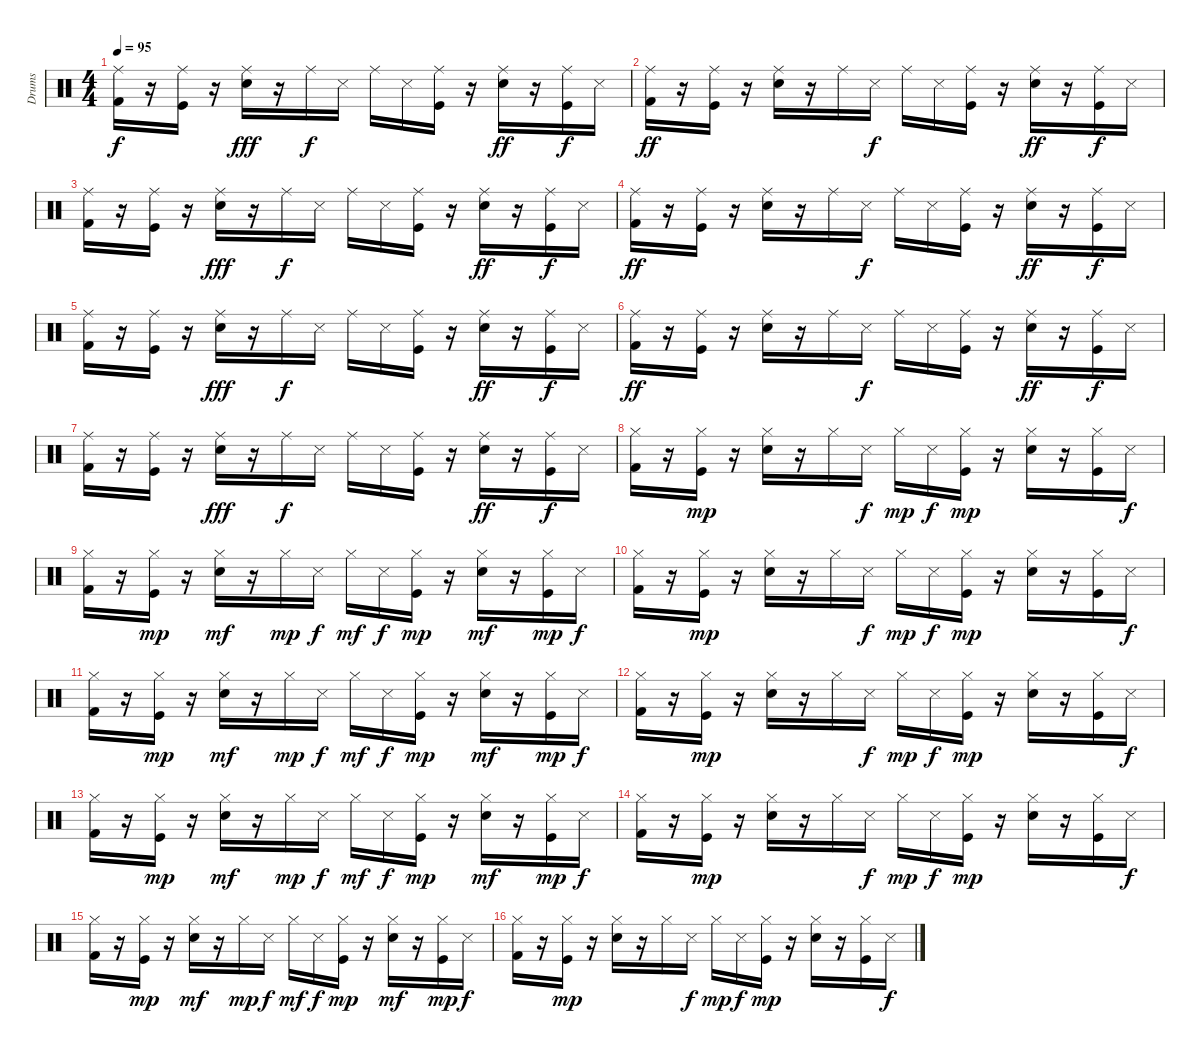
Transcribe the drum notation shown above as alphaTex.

\track ("Drums" "Drums") {instrument percussion}
\staff {score}
\articulation defaults
\ts (4 4)
\tempo 95
\clef neutral
\ks c
("Kick (hit) 2" "Ride (middle)").16{dy f} r.16 ("Kick (hit)" "Ride (middle)").16 r.16 ("Snare (hit) 2" "Ride (middle)").16{dy fff} r.16 "Ride (middle)".16{dy f} "Snare (side stick) 3".16 "Ride (middle)".16 "Snare (side stick) 3".16 ("Kick (hit)" "Ride (middle)").16 r.16 ("Snare (hit) 2" "Ride (middle)").16{dy ff} r.16 ("Kick (hit)" "Ride (middle)").16{dy f} "Snare (side stick) 3".16 |
("Kick (hit) 2" "Ride (middle)").16{dy ff} r.16 ("Kick (hit)" "Ride (middle)").16 r.16 ("Snare (hit) 2" "Ride (middle)").16 r.16 "Ride (middle)".16 "Snare (side stick) 3".16{dy f} "Ride (middle)".16 "Snare (side stick) 3".16 ("Kick (hit)" "Ride (middle)").16 r.16 ("Snare (hit) 2" "Ride (middle)").16{dy ff} r.16 ("Kick (hit)" "Ride (middle)").16{dy f} "Snare (side stick) 3".16 |
("Kick (hit) 2" "Ride (middle)").16 r.16 ("Kick (hit)" "Ride (middle)").16 r.16 ("Snare (hit) 2" "Ride (middle)").16{dy fff} r.16 "Ride (middle)".16{dy f} "Snare (side stick) 3".16 "Ride (middle)".16 "Snare (side stick) 3".16 ("Kick (hit)" "Ride (middle)").16 r.16 ("Snare (hit) 2" "Ride (middle)").16{dy ff} r.16 ("Kick (hit)" "Ride (middle)").16{dy f} "Snare (side stick) 3".16 |
("Kick (hit) 2" "Ride (middle)").16{dy ff} r.16 ("Kick (hit)" "Ride (middle)").16 r.16 ("Snare (hit) 2" "Ride (middle)").16 r.16 "Ride (middle)".16 "Snare (side stick) 3".16{dy f} "Ride (middle)".16 "Snare (side stick) 3".16 ("Kick (hit)" "Ride (middle)").16 r.16 ("Snare (hit) 2" "Ride (middle)").16{dy ff} r.16 ("Kick (hit)" "Ride (middle)").16{dy f} "Snare (side stick) 3".16 |
("Kick (hit) 2" "Ride (middle)").16 r.16 ("Kick (hit)" "Ride (middle)").16 r.16 ("Snare (hit) 2" "Ride (middle)").16{dy fff} r.16 "Ride (middle)".16{dy f} "Snare (side stick) 3".16 "Ride (middle)".16 "Snare (side stick) 3".16 ("Kick (hit)" "Ride (middle)").16 r.16 ("Snare (hit) 2" "Ride (middle)").16{dy ff} r.16 ("Kick (hit)" "Ride (middle)").16{dy f} "Snare (side stick) 3".16 |
("Kick (hit) 2" "Ride (middle)").16{dy ff} r.16 ("Kick (hit)" "Ride (middle)").16 r.16 ("Snare (hit) 2" "Ride (middle)").16 r.16 "Ride (middle)".16 "Snare (side stick) 3".16{dy f} "Ride (middle)".16 "Snare (side stick) 3".16 ("Kick (hit)" "Ride (middle)").16 r.16 ("Snare (hit) 2" "Ride (middle)").16{dy ff} r.16 ("Kick (hit)" "Ride (middle)").16{dy f} "Snare (side stick) 3".16 |
("Kick (hit) 2" "Ride (middle)").16 r.16 ("Kick (hit)" "Ride (middle)").16 r.16 ("Snare (hit) 2" "Ride (middle)").16{dy fff} r.16 "Ride (middle)".16{dy f} "Snare (side stick) 3".16 "Ride (middle)".16 "Snare (side stick) 3".16 ("Kick (hit)" "Ride (middle)").16 r.16 ("Snare (hit) 2" "Ride (middle)").16{dy ff} r.16 ("Kick (hit)" "Ride (middle)").16{dy f} "Snare (side stick) 3".16 |
("Kick (hit) 2" "Hi-Hat (closed)").16 r.16 ("Kick (hit)" "Hi-Hat (closed)").16{dy mp} r.16 ("Snare (hit) 2" "Hi-Hat (closed)").16 r.16 "Hi-Hat (closed)".16 "Snare (side stick) 3".16{dy f} "Hi-Hat (closed)".16{dy mp} "Snare (side stick) 3".16{dy f} ("Kick (hit)" "Hi-Hat (closed)").16{dy mp} r.16 ("Snare (hit) 2" "Hi-Hat (closed)").16 r.16 ("Kick (hit)" "Hi-Hat (closed)").16 "Snare (side stick) 3".16{dy f} |
("Kick (hit) 2" "Hi-Hat (closed)").16 r.16 ("Kick (hit)" "Hi-Hat (closed)").16{dy mp} r.16 ("Snare (hit) 2" "Hi-Hat (closed)").16{dy mf} r.16 "Hi-Hat (closed)".16{dy mp} "Snare (side stick) 3".16{dy f} "Hi-Hat (closed)".16{dy mf} "Snare (side stick) 3".16{dy f} ("Kick (hit)" "Hi-Hat (closed)").16{dy mp} r.16 ("Snare (hit) 2" "Hi-Hat (closed)").16{dy mf} r.16 ("Kick (hit)" "Hi-Hat (closed)").16{dy mp} "Snare (side stick) 3".16{dy f} |
("Kick (hit) 2" "Hi-Hat (closed)").16 r.16 ("Kick (hit)" "Hi-Hat (closed)").16{dy mp} r.16 ("Snare (hit) 2" "Hi-Hat (closed)").16 r.16 "Hi-Hat (closed)".16 "Snare (side stick) 3".16{dy f} "Hi-Hat (closed)".16{dy mp} "Snare (side stick) 3".16{dy f} ("Kick (hit)" "Hi-Hat (closed)").16{dy mp} r.16 ("Snare (hit) 2" "Hi-Hat (closed)").16 r.16 ("Kick (hit)" "Hi-Hat (closed)").16 "Snare (side stick) 3".16{dy f} |
("Kick (hit) 2" "Hi-Hat (closed)").16 r.16 ("Kick (hit)" "Hi-Hat (closed)").16{dy mp} r.16 ("Snare (hit) 2" "Hi-Hat (closed)").16{dy mf} r.16 "Hi-Hat (closed)".16{dy mp} "Snare (side stick) 3".16{dy f} "Hi-Hat (closed)".16{dy mf} "Snare (side stick) 3".16{dy f} ("Kick (hit)" "Hi-Hat (closed)").16{dy mp} r.16 ("Snare (hit) 2" "Hi-Hat (closed)").16{dy mf} r.16 ("Kick (hit)" "Hi-Hat (closed)").16{dy mp} "Snare (side stick) 3".16{dy f} |
("Kick (hit) 2" "Hi-Hat (closed)").16 r.16 ("Kick (hit)" "Hi-Hat (closed)").16{dy mp} r.16 ("Snare (hit) 2" "Hi-Hat (closed)").16 r.16 "Hi-Hat (closed)".16 "Snare (side stick) 3".16{dy f} "Hi-Hat (closed)".16{dy mp} "Snare (side stick) 3".16{dy f} ("Kick (hit)" "Hi-Hat (closed)").16{dy mp} r.16 ("Snare (hit) 2" "Hi-Hat (closed)").16 r.16 ("Kick (hit)" "Hi-Hat (closed)").16 "Snare (side stick) 3".16{dy f} |
("Kick (hit) 2" "Hi-Hat (closed)").16 r.16 ("Kick (hit)" "Hi-Hat (closed)").16{dy mp} r.16 ("Snare (hit) 2" "Hi-Hat (closed)").16{dy mf} r.16 "Hi-Hat (closed)".16{dy mp} "Snare (side stick) 3".16{dy f} "Hi-Hat (closed)".16{dy mf} "Snare (side stick) 3".16{dy f} ("Kick (hit)" "Hi-Hat (closed)").16{dy mp} r.16 ("Snare (hit) 2" "Hi-Hat (closed)").16{dy mf} r.16 ("Kick (hit)" "Hi-Hat (closed)").16{dy mp} "Snare (side stick) 3".16{dy f} |
("Kick (hit) 2" "Hi-Hat (closed)").16 r.16 ("Kick (hit)" "Hi-Hat (closed)").16{dy mp} r.16 ("Snare (hit) 2" "Hi-Hat (closed)").16 r.16 "Hi-Hat (closed)".16 "Snare (side stick) 3".16{dy f} "Hi-Hat (closed)".16{dy mp} "Snare (side stick) 3".16{dy f} ("Kick (hit)" "Hi-Hat (closed)").16{dy mp} r.16 ("Snare (hit) 2" "Hi-Hat (closed)").16 r.16 ("Kick (hit)" "Hi-Hat (closed)").16 "Snare (side stick) 3".16{dy f} |
("Kick (hit) 2" "Hi-Hat (closed)").16 r.16 ("Kick (hit)" "Hi-Hat (closed)").16{dy mp} r.16 ("Snare (hit) 2" "Hi-Hat (closed)").16{dy mf} r.16 "Hi-Hat (closed)".16{dy mp} "Snare (side stick) 3".16{dy f} "Hi-Hat (closed)".16{dy mf} "Snare (side stick) 3".16{dy f} ("Kick (hit)" "Hi-Hat (closed)").16{dy mp} r.16 ("Snare (hit) 2" "Hi-Hat (closed)").16{dy mf} r.16 ("Kick (hit)" "Hi-Hat (closed)").16{dy mp} "Snare (side stick) 3".16{dy f} |
("Kick (hit) 2" "Hi-Hat (closed)").16 r.16 ("Kick (hit)" "Hi-Hat (closed)").16{dy mp} r.16 ("Snare (hit) 2" "Hi-Hat (closed)").16 r.16 "Hi-Hat (closed)".16 "Snare (side stick) 3".16{dy f} "Hi-Hat (closed)".16{dy mp} "Snare (side stick) 3".16{dy f} ("Kick (hit)" "Hi-Hat (closed)").16{dy mp} r.16 ("Snare (hit) 2" "Hi-Hat (closed)").16 r.16 ("Kick (hit)" "Hi-Hat (closed)").16 "Snare (side stick) 3".16{dy f}
